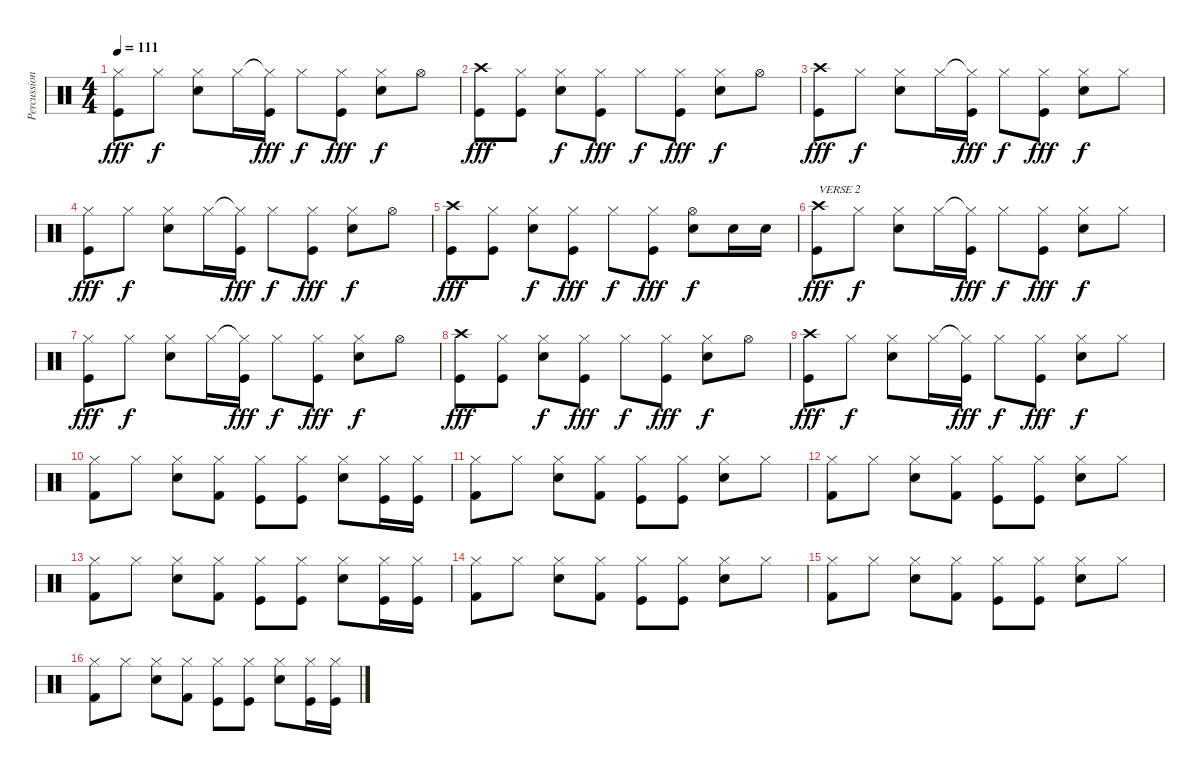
\track ("Percussion" "Percussion") {instrument percussion}
\staff {score}
\articulation defaults
\ts (4 4)
\tempo 111
\clef neutral
\ks c
("Hi-Hat (closed)" "Kick (hit)").8{dy fff} "Hi-Hat (closed)".8{dy f} ("Hi-Hat (closed)" "Snare (hit) 2").8 "Hi-Hat (closed)".16 ("Hi-Hat (closed)"{t} "Kick (hit)").16{dy fff} "Hi-Hat (closed)".8{dy f} ("Hi-Hat (closed)" "Kick (hit)").8{dy fff} ("Hi-Hat (closed)" "Snare (hit) 2").8{dy f} "Hi-Hat (open)".8 |
("Crash high (hit)" "Kick (hit)").8{dy fff} ("Hi-Hat (closed)" "Kick (hit)").8 ("Hi-Hat (closed)" "Snare (hit) 2").8{dy f} ("Hi-Hat (closed)" "Kick (hit)").8{dy fff} "Hi-Hat (closed)".8{dy f} ("Hi-Hat (closed)" "Kick (hit)").8{dy fff} ("Hi-Hat (closed)" "Snare (hit) 2").8{dy f} "Hi-Hat (open)".8 |
("Crash high (hit)" "Kick (hit)").8{dy fff} "Hi-Hat (closed)".8{dy f} ("Hi-Hat (closed)" "Snare (hit) 2").8 "Hi-Hat (closed)".16 ("Hi-Hat (closed)"{t} "Kick (hit)").16{dy fff} "Hi-Hat (closed)".8{dy f} ("Hi-Hat (closed)" "Kick (hit)").8{dy fff} ("Hi-Hat (closed)" "Snare (hit) 2").8{dy f} "Hi-Hat (closed)".8 |
("Hi-Hat (closed)" "Kick (hit)").8{dy fff} "Hi-Hat (closed)".8{dy f} ("Hi-Hat (closed)" "Snare (hit) 2").8 "Hi-Hat (closed)".16 ("Hi-Hat (closed)"{t} "Kick (hit)").16{dy fff} "Hi-Hat (closed)".8{dy f} ("Hi-Hat (closed)" "Kick (hit)").8{dy fff} ("Hi-Hat (closed)" "Snare (hit) 2").8{dy f} "Hi-Hat (open)".8 |
("Crash high (hit)" "Kick (hit)").8{dy fff} ("Hi-Hat (closed)" "Kick (hit)").8 ("Hi-Hat (closed)" "Snare (hit) 2").8{dy f} ("Hi-Hat (closed)" "Kick (hit)").8{dy fff} "Hi-Hat (closed)".8{dy f} ("Hi-Hat (closed)" "Kick (hit)").8{dy fff} ("Hi-Hat (open)" "Snare (hit) 2").8{dy f} "Snare (hit) 2".16 "Snare (hit) 2".16 |
("Crash high (hit)" "Kick (hit)").8{txt "VERSE 2" dy fff} "Hi-Hat (closed)".8{dy f} ("Hi-Hat (closed)" "Snare (hit) 2").8 "Hi-Hat (closed)".16 ("Hi-Hat (closed)"{t} "Kick (hit)").16{dy fff} "Hi-Hat (closed)".8{dy f} ("Hi-Hat (closed)" "Kick (hit)").8{dy fff} ("Hi-Hat (closed)" "Snare (hit) 2").8{dy f} "Hi-Hat (closed)".8 |
("Hi-Hat (closed)" "Kick (hit)").8{dy fff} "Hi-Hat (closed)".8{dy f} ("Hi-Hat (closed)" "Snare (hit) 2").8 "Hi-Hat (closed)".16 ("Hi-Hat (closed)"{t} "Kick (hit)").16{dy fff} "Hi-Hat (closed)".8{dy f} ("Hi-Hat (closed)" "Kick (hit)").8{dy fff} ("Hi-Hat (closed)" "Snare (hit) 2").8{dy f} "Hi-Hat (open)".8 |
("Crash high (hit)" "Kick (hit)").8{dy fff} ("Hi-Hat (closed)" "Kick (hit)").8 ("Hi-Hat (closed)" "Snare (hit) 2").8{dy f} ("Hi-Hat (closed)" "Kick (hit)").8{dy fff} "Hi-Hat (closed)".8{dy f} ("Hi-Hat (closed)" "Kick (hit)").8{dy fff} ("Hi-Hat (closed)" "Snare (hit) 2").8{dy f} "Hi-Hat (open)".8 |
("Crash high (hit)" "Kick (hit)").8{dy fff} "Hi-Hat (closed)".8{dy f} ("Hi-Hat (closed)" "Snare (hit) 2").8 "Hi-Hat (closed)".16 ("Hi-Hat (closed)"{t} "Kick (hit)").16{dy fff} "Hi-Hat (closed)".8{dy f} ("Hi-Hat (closed)" "Kick (hit)").8{dy fff} ("Hi-Hat (closed)" "Snare (hit) 2").8{dy f} "Hi-Hat (closed)".8 |
("Hi-Hat (closed)" "Kick (hit) 2").8 "Hi-Hat (closed)".8 ("Hi-Hat (closed)" "Electric Snare (hit)").8 ("Hi-Hat (closed)" "Kick (hit) 2").8 ("Hi-Hat (closed)" "Kick (hit)").8 ("Hi-Hat (closed)" "Kick (hit)").8 ("Hi-Hat (closed)" "Electric Snare (hit)").8 ("Hi-Hat (closed)" "Kick (hit)").16 ("Hi-Hat (closed)" "Kick (hit)").16 |
("Hi-Hat (closed)" "Kick (hit) 2").8 "Hi-Hat (closed)".8 ("Hi-Hat (closed)" "Electric Snare (hit)").8 ("Hi-Hat (closed)" "Kick (hit) 2").8 ("Hi-Hat (closed)" "Kick (hit)").8 ("Hi-Hat (closed)" "Kick (hit)").8 ("Hi-Hat (closed)" "Electric Snare (hit)").8 "Hi-Hat (closed)".8 |
("Hi-Hat (closed)" "Kick (hit) 2").8 "Hi-Hat (closed)".8 ("Hi-Hat (closed)" "Electric Snare (hit)").8 ("Hi-Hat (closed)" "Kick (hit) 2").8 ("Hi-Hat (closed)" "Kick (hit)").8 ("Hi-Hat (closed)" "Kick (hit)").8 ("Hi-Hat (closed)" "Electric Snare (hit)").8 "Hi-Hat (closed)".8 |
("Hi-Hat (closed)" "Kick (hit) 2").8 "Hi-Hat (closed)".8 ("Hi-Hat (closed)" "Electric Snare (hit)").8 ("Hi-Hat (closed)" "Kick (hit) 2").8 ("Hi-Hat (closed)" "Kick (hit)").8 ("Hi-Hat (closed)" "Kick (hit)").8 ("Hi-Hat (closed)" "Electric Snare (hit)").8 ("Hi-Hat (closed)" "Kick (hit)").16 ("Hi-Hat (closed)" "Kick (hit)").16 |
("Hi-Hat (closed)" "Kick (hit) 2").8 "Hi-Hat (closed)".8 ("Hi-Hat (closed)" "Electric Snare (hit)").8 ("Hi-Hat (closed)" "Kick (hit) 2").8 ("Hi-Hat (closed)" "Kick (hit)").8 ("Hi-Hat (closed)" "Kick (hit)").8 ("Hi-Hat (closed)" "Electric Snare (hit)").8 "Hi-Hat (closed)".8 |
("Hi-Hat (closed)" "Kick (hit) 2").8 "Hi-Hat (closed)".8 ("Hi-Hat (closed)" "Electric Snare (hit)").8 ("Hi-Hat (closed)" "Kick (hit) 2").8 ("Hi-Hat (closed)" "Kick (hit)").8 ("Hi-Hat (closed)" "Kick (hit)").8 ("Hi-Hat (closed)" "Electric Snare (hit)").8 "Hi-Hat (closed)".8 |
("Hi-Hat (closed)" "Kick (hit) 2").8 "Hi-Hat (closed)".8 ("Hi-Hat (closed)" "Electric Snare (hit)").8 ("Hi-Hat (closed)" "Kick (hit) 2").8 ("Hi-Hat (closed)" "Kick (hit)").8 ("Hi-Hat (closed)" "Kick (hit)").8 ("Hi-Hat (closed)" "Electric Snare (hit)").8 ("Hi-Hat (closed)" "Kick (hit)").16 ("Hi-Hat (closed)" "Kick (hit)").16
